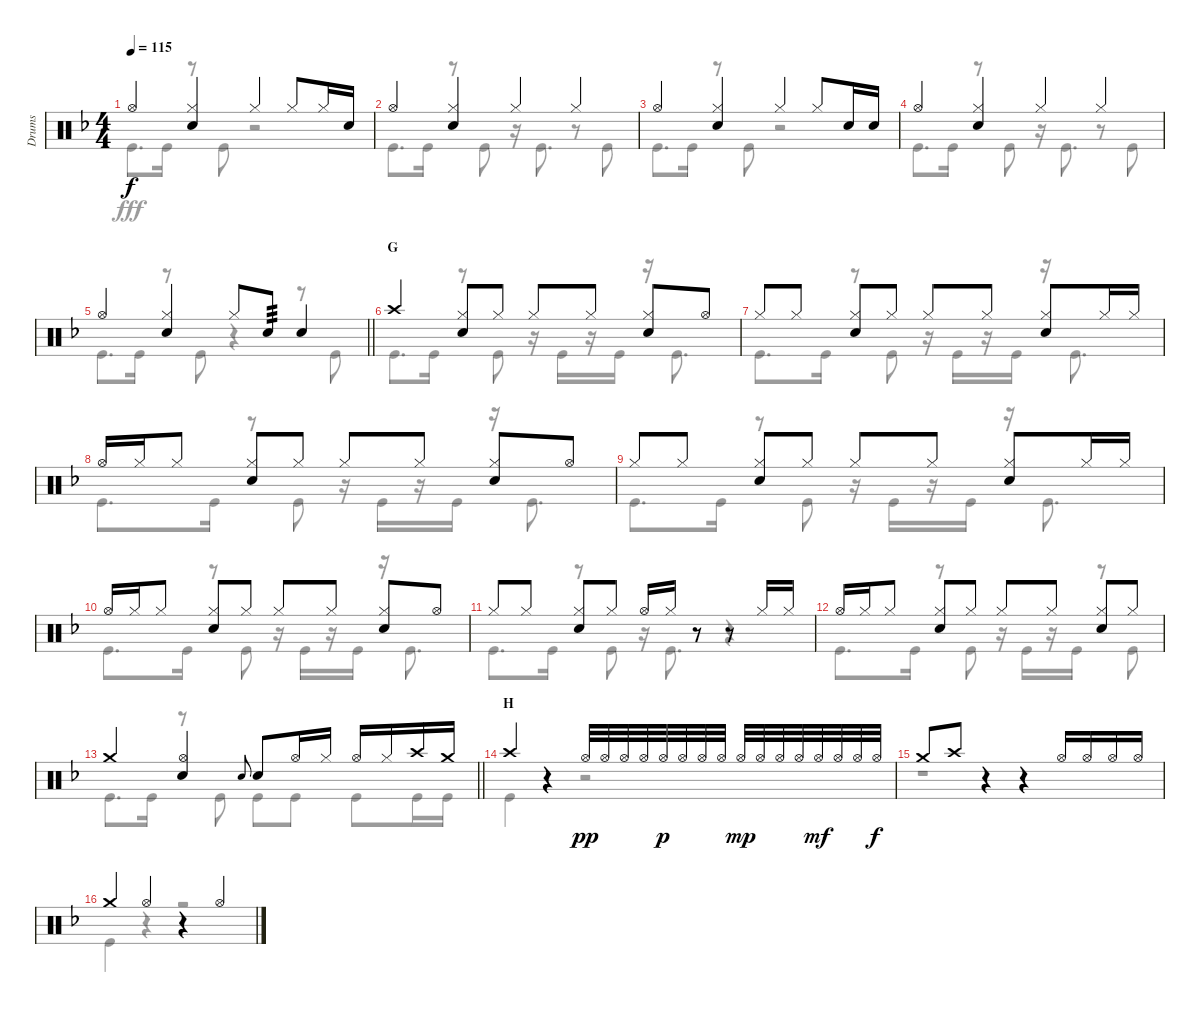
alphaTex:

\track ("Drums" "Drums") {instrument percussion}
\staff {score}
\articulation defaults
\voice
\ts (4 4)
\tempo 115
\clef neutral
\ks f "Hi-Hat (open)".4{dy f}
("Hi-Hat (closed)" "Snare (hit) 2").4 "Hi-Hat (closed)".4 "Hi-Hat (closed)".8 "Hi-Hat (closed)".16 "Snare (hit) 2".16 |
"Hi-Hat (open)".4 ("Hi-Hat (closed)" "Snare (hit) 2").4 "Hi-Hat (closed)".4 "Hi-Hat (closed)".4 |
"Hi-Hat (open)".4 ("Hi-Hat (closed)" "Snare (hit) 2").4 "Hi-Hat (closed)".4 "Hi-Hat (closed)".8 "Snare (hit) 2".16 "Snare (hit) 2".16 |
"Hi-Hat (open)".4 ("Hi-Hat (closed)" "Snare (hit) 2").4 "Hi-Hat (closed)".4 "Hi-Hat (closed)".4 |
\barLineRight lightlight "Hi-Hat (open)".4
("Hi-Hat (closed)" "Snare (hit) 2").4 "Hi-Hat (closed)".8 "Snare (hit) 2".8{tp 3} "Snare (hit) 2".4 |
\section ("" "G")
"Crash high (hit)".4 ("Hi-Hat (closed)" "Snare (hit) 2").8 "Hi-Hat (closed)".8 "Hi-Hat (closed)".8 "Hi-Hat (closed)".8 ("Hi-Hat (closed)" "Snare (hit) 2").8 "Hi-Hat (open)".8 |
"Hi-Hat (closed)".8 "Hi-Hat (closed)".8 ("Hi-Hat (closed)" "Snare (hit) 2").8 "Hi-Hat (closed)".8 "Hi-Hat (closed)".8 "Hi-Hat (closed)".8 ("Hi-Hat (closed)" "Snare (hit) 2").8 "Hi-Hat (closed)".16 "Hi-Hat (closed)".16 |
"Hi-Hat (open)".16 "Hi-Hat (closed)".16 "Hi-Hat (closed)".8 ("Hi-Hat (closed)" "Snare (hit) 2").8 "Hi-Hat (closed)".8 "Hi-Hat (closed)".8 "Hi-Hat (closed)".8 ("Hi-Hat (closed)" "Snare (hit) 2").8 "Hi-Hat (open)".8 |
"Hi-Hat (closed)".8 "Hi-Hat (closed)".8 ("Hi-Hat (closed)" "Snare (hit) 2").8 "Hi-Hat (closed)".8 "Hi-Hat (closed)".8 "Hi-Hat (closed)".8 ("Hi-Hat (closed)" "Snare (hit) 2").8 "Hi-Hat (closed)".16 "Hi-Hat (closed)".16 |
"Hi-Hat (open)".16 "Hi-Hat (closed)".16 "Hi-Hat (closed)".8 ("Hi-Hat (closed)" "Snare (hit) 2").8 "Hi-Hat (closed)".8 "Hi-Hat (closed)".8 "Hi-Hat (closed)".8 ("Hi-Hat (closed)" "Snare (hit) 2").8 "Hi-Hat (open)".8 |
"Hi-Hat (closed)".8 "Hi-Hat (closed)".8 ("Hi-Hat (closed)" "Snare (hit) 2").8 "Hi-Hat (closed)".8 "Hi-Hat (open)".16 "Hi-Hat (closed)".16 r.8 r.8 "Hi-Hat (closed)".16 "Hi-Hat (closed)".16 |
"Hi-Hat (open)".16 "Hi-Hat (closed)".16 "Hi-Hat (closed)".8 ("Hi-Hat (closed)" "Snare (hit) 2").8 "Hi-Hat (closed)".8 "Hi-Hat (closed)".8 "Hi-Hat (closed)".8 ("Hi-Hat (closed)" "Snare (hit) 2").8 "Hi-Hat (closed)".8 |
\barLineRight lightlight "Crash medium (hit)".4
("Hi-Hat (open)" "Snare (hit) 2").4 "Snare (hit) 2".8{gr onbeat} "Snare (hit) 2".8 "Hi-Hat (open)".16 "Hi-Hat (closed)".16 "Hi-Hat (open)".16 "Hi-Hat (closed)".16 "Crash high (hit)".16 "Crash medium (hit)".16 |
\section ("" "H")
"Crash high (hit)".4 r.4 "Hi-Hat (open)".32{dy pp} "Hi-Hat (open)".32 "Hi-Hat (open)".32 "Hi-Hat (open)".32 "Hi-Hat (open)".32{dy p} "Hi-Hat (open)".32 "Hi-Hat (open)".32 "Hi-Hat (open)".32 "Hi-Hat (open)".32{dy mp} "Hi-Hat (open)".32 "Hi-Hat (open)".32 "Hi-Hat (open)".32 "Hi-Hat (open)".32{dy mf} "Hi-Hat (open)".32 "Hi-Hat (open)".32 "Hi-Hat (open)".32{dy f} |
"Crash medium (hit)".8 "Crash high (hit)".8 r.4 r.4 "Hi-Hat (open)".16 "Hi-Hat (open)".16 "Hi-Hat (open)".16 "Hi-Hat (open)".16 |
"Crash medium (hit)".4 "Hi-Hat (open)".4 r.4 "Hi-Hat (open)".4
\voice
\clef neutral
\ottava regular
\simile none
\ks f "Kick (hit)".8{d dy fff} "Kick (hit)".16
r.8 "Kick (hit)".8 r.2 |
"Kick (hit)".8{d} "Kick (hit)".16 r.8 "Kick (hit)".8 r.16 "Kick (hit)".8{d} r.8 "Kick (hit)".8 |
"Kick (hit)".8{d} "Kick (hit)".16 r.8 "Kick (hit)".8 r.2 |
"Kick (hit)".8{d} "Kick (hit)".16 r.8 "Kick (hit)".8 r.16 "Kick (hit)".8{d} r.8 "Kick (hit)".8 |
\barLineRight lightlight "Kick (hit)".8{d} "Kick (hit)".16
r.8 "Kick (hit)".8 r.4 r.8 "Kick (hit)".8 |
"Kick (hit)".8{d} "Kick (hit)".16 r.8 "Kick (hit)".8 r.16 "Kick (hit)".16 r.16 "Kick (hit)".16 r.16 "Kick (hit)".8{d} |
"Kick (hit)".8{d} "Kick (hit)".16 r.8 "Kick (hit)".8 r.16 "Kick (hit)".16 r.16 "Kick (hit)".16 r.16 "Kick (hit)".8{d} |
"Kick (hit)".8{d} "Kick (hit)".16 r.8 "Kick (hit)".8 r.16 "Kick (hit)".16 r.16 "Kick (hit)".16 r.16 "Kick (hit)".8{d} |
"Kick (hit)".8{d} "Kick (hit)".16 r.8 "Kick (hit)".8 r.16 "Kick (hit)".16 r.16 "Kick (hit)".16 r.16 "Kick (hit)".8{d} |
"Kick (hit)".8{d} "Kick (hit)".16 r.8 "Kick (hit)".8 r.16 "Kick (hit)".16 r.16 "Kick (hit)".16 r.16 "Kick (hit)".8{d} |
"Kick (hit)".8{d} "Kick (hit)".16 r.8 "Kick (hit)".8 r.16 "Kick (hit)".8{d} r.4 |
"Kick (hit)".8{d} "Kick (hit)".16 r.8 "Kick (hit)".8 r.16 "Kick (hit)".16 r.16 "Kick (hit)".16 r.8 "Kick (hit)".8 |
\barLineRight lightlight "Kick (hit)".8{d} "Kick (hit)".16
r.8 "Kick (hit)".8 "Kick (hit)".8 "Kick (hit)".8 "Kick (hit)".8 "Kick (hit)".16 "Kick (hit)".16 |
"Kick (hit)".4 r.4 r.2 |
r.1 |
"Kick (hit)".4 r.4 r.2
